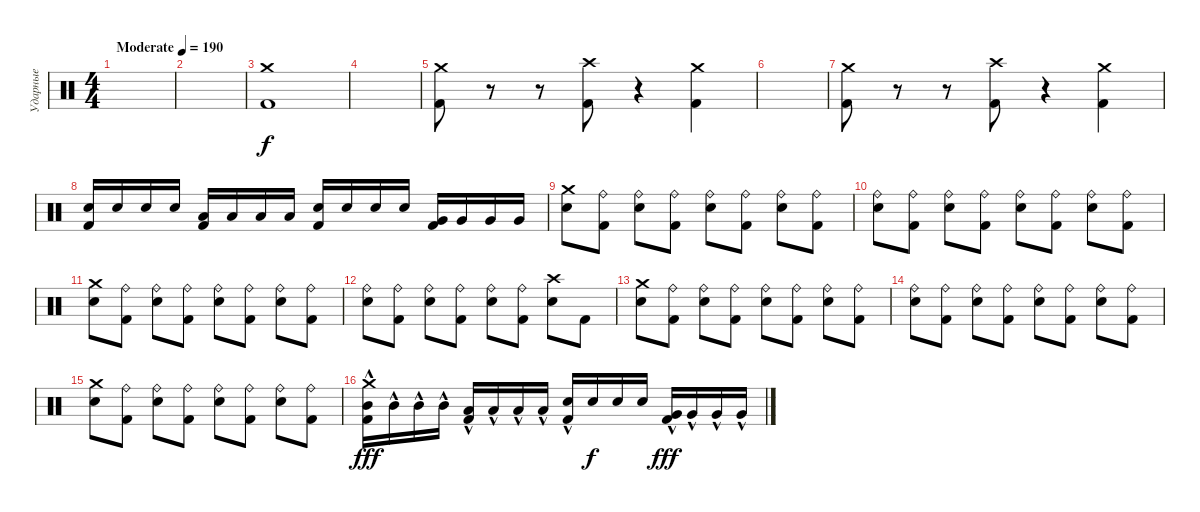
\track ("Ударные" "Ударные") {instrument percussion}
\staff {score}
\articulation defaults
\ts (4 4)
\tempo (190 "Moderate")
\clef neutral
\ks c
|
|
("Crash medium (hit)" "Kick (hit) 2").1 |
|
("Crash medium (hit)" "Kick (hit) 2").8 r.8 r.8 ("Crash high (hit)" "Kick (hit) 2").8 r.4 ("Crash medium (hit)" "Kick (hit) 2").4 |
|
("Crash medium (hit)" "Kick (hit) 2").8 r.8 r.8 ("Crash high (hit)" "Kick (hit) 2").8 r.4 ("Crash medium (hit)" "Kick (hit) 2").4 |
("Electric Snare (hit)" "Kick (hit) 2").16 "Electric Snare (hit)".16 "Electric Snare (hit)".16 "Electric Snare (hit)".16 ("Low Tom (hit)" "Kick (hit) 2").16 "Low Tom (hit)".16 "Low Tom (hit)".16 "Low Tom (hit)".16 ("Electric Snare (hit)" "Kick (hit) 2").16 "Electric Snare (hit)".16 "Electric Snare (hit)".16 "Electric Snare (hit)".16 ("Very Low Tom (hit)" "Kick (hit) 2").16 "Very Low Tom (hit)".16 "Very Low Tom (hit)".16 "Very Low Tom (hit)".16 |
("Crash medium (hit)" "Electric Snare (hit)").8 ("Ride (bell)" "Kick (hit) 2").8 ("Ride (bell)" "Electric Snare (hit)").8 ("Ride (bell)" "Kick (hit) 2").8 ("Ride (bell)" "Electric Snare (hit)").8 ("Ride (bell)" "Kick (hit) 2").8 ("Ride (bell)" "Electric Snare (hit)").8 ("Ride (bell)" "Kick (hit) 2").8 |
("Ride (bell)" "Electric Snare (hit)").8 ("Ride (bell)" "Kick (hit) 2").8 ("Ride (bell)" "Electric Snare (hit)").8 ("Ride (bell)" "Kick (hit) 2").8 ("Ride (bell)" "Electric Snare (hit)").8 ("Ride (bell)" "Kick (hit) 2").8 ("Ride (bell)" "Electric Snare (hit)").8 ("Ride (bell)" "Kick (hit) 2").8 |
("Crash medium (hit)" "Electric Snare (hit)").8 ("Ride (bell)" "Kick (hit) 2").8 ("Ride (bell)" "Electric Snare (hit)").8 ("Ride (bell)" "Kick (hit) 2").8 ("Ride (bell)" "Electric Snare (hit)").8 ("Ride (bell)" "Kick (hit) 2").8 ("Ride (bell)" "Electric Snare (hit)").8 ("Ride (bell)" "Kick (hit) 2").8 |
("Ride (bell)" "Electric Snare (hit)").8 ("Ride (bell)" "Kick (hit) 2").8 ("Ride (bell)" "Electric Snare (hit)").8 ("Ride (bell)" "Kick (hit) 2").8 ("Ride (bell)" "Electric Snare (hit)").8 ("Ride (bell)" "Kick (hit) 2").8 ("Crash high (hit)" "Electric Snare (hit)").8 "Kick (hit) 2".8 |
("Crash medium (hit)" "Electric Snare (hit)").8 ("Ride (bell)" "Kick (hit) 2").8 ("Ride (bell)" "Electric Snare (hit)").8 ("Ride (bell)" "Kick (hit) 2").8 ("Ride (bell)" "Electric Snare (hit)").8 ("Ride (bell)" "Kick (hit) 2").8 ("Ride (bell)" "Electric Snare (hit)").8 ("Ride (bell)" "Kick (hit) 2").8 |
("Ride (bell)" "Electric Snare (hit)").8 ("Ride (bell)" "Kick (hit) 2").8 ("Ride (bell)" "Electric Snare (hit)").8 ("Ride (bell)" "Kick (hit) 2").8 ("Ride (bell)" "Electric Snare (hit)").8 ("Ride (bell)" "Kick (hit) 2").8 ("Ride (bell)" "Electric Snare (hit)").8 ("Ride (bell)" "Kick (hit) 2").8 |
("Crash medium (hit)" "Electric Snare (hit)").8 ("Ride (bell)" "Kick (hit) 2").8 ("Ride (bell)" "Electric Snare (hit)").8 ("Ride (bell)" "Kick (hit) 2").8 ("Ride (bell)" "Electric Snare (hit)").8 ("Ride (bell)" "Kick (hit) 2").8 ("Ride (bell)" "Electric Snare (hit)").8 ("Ride (bell)" "Kick (hit) 2").8 |
("Crash medium (hit)" "Mid Tom (hit)" "Kick (hit) 2"{hac}).16{dy fff} "Mid Tom (hit)"{hac}.16 "Mid Tom (hit)"{hac}.16 "Mid Tom (hit)"{hac}.16 ("Low Tom (hit)"{hac} "Kick (hit) 2"{hac}).16 "Low Tom (hit)"{hac}.16 "Low Tom (hit)"{hac}.16 "Low Tom (hit)"{hac}.16 ("Electric Snare (hit)" "Kick (hit) 2"{hac}).16 "Electric Snare (hit)".16{dy f} "Electric Snare (hit)".16 "Electric Snare (hit)".16 ("Very Low Tom (hit)"{hac} "Kick (hit) 2"{hac}).16{dy fff} "Very Low Tom (hit)"{hac}.16 "Very Low Tom (hit)"{hac}.16 "Very Low Tom (hit)"{hac}.16
